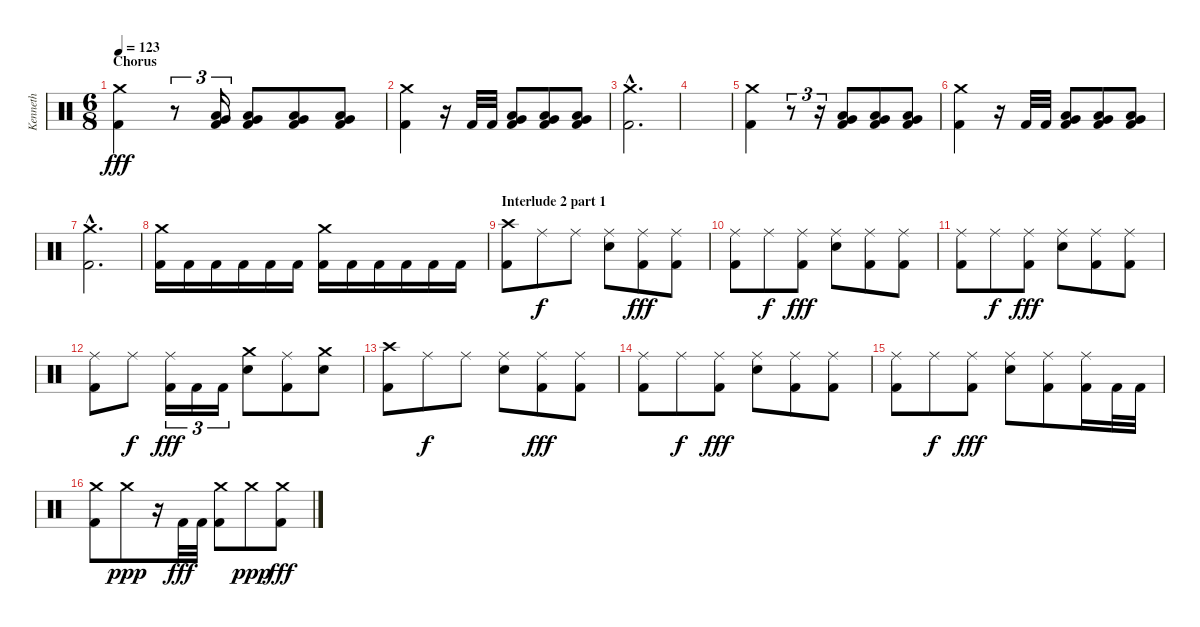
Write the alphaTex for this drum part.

\track ("Kenneth" "Kenneth") {instrument percussion}
\staff {score}
\articulation defaults
\ts (6 8)
\section ("" "Chorus")
\tempo 123
\clef neutral
\ks c
("Crash medium (hit)" "Kick (hit) 2").4{dy fff} r.8{tu (3 2)} ("Very Low Tom (hit)" "Low Tom (hit)" "Kick (hit) 2").16{tu (3 2)} ("Very Low Tom (hit)" "Low Tom (hit)" "Kick (hit) 2").8 ("Very Low Tom (hit)" "Low Tom (hit)" "Kick (hit) 2").8 ("Very Low Tom (hit)" "Low Tom (hit)" "Kick (hit) 2").8 |
("Crash medium (hit)" "Kick (hit) 2").4 r.16 "Kick (hit) 2".32 "Kick (hit) 2".32 ("Very Low Tom (hit)" "Low Tom (hit)" "Kick (hit) 2").8 ("Very Low Tom (hit)" "Low Tom (hit)" "Kick (hit) 2").8 ("Very Low Tom (hit)" "Low Tom (hit)" "Kick (hit) 2").8 |
("Crash medium (hit)"{hac} "Kick (hit) 2"{hac}).2{d} |
|
("Crash medium (hit)" "Kick (hit) 2").4 r.8{tu (3 2)} r.16{tu (3 2)} ("Very Low Tom (hit)" "Low Tom (hit)" "Kick (hit) 2").8 ("Very Low Tom (hit)" "Low Tom (hit)" "Kick (hit) 2").8 ("Very Low Tom (hit)" "Low Tom (hit)" "Kick (hit) 2").8 |
("Crash medium (hit)" "Kick (hit) 2").4 r.16 "Kick (hit) 2".32 "Kick (hit) 2".32 ("Very Low Tom (hit)" "Low Tom (hit)" "Kick (hit) 2").8 ("Very Low Tom (hit)" "Low Tom (hit)" "Kick (hit) 2").8 ("Very Low Tom (hit)" "Low Tom (hit)" "Kick (hit) 2").8 |
("Crash medium (hit)"{hac} "Kick (hit) 2"{hac}).2{d} |
("Crash medium (hit)" "Kick (hit) 2").16 "Kick (hit) 2".16 "Kick (hit) 2".16 "Kick (hit) 2".16 "Kick (hit) 2".16 "Kick (hit) 2".16 ("Crash medium (hit)" "Kick (hit) 2").16 "Kick (hit) 2".16 "Kick (hit) 2".16 "Kick (hit) 2".16 "Kick (hit) 2".16 "Kick (hit) 2".16 |
\section ("" "Interlude 2 part 1 ")
("Crash high (hit)" "Kick (hit) 2").8 "Ride (middle)".8{dy f} "Ride (middle)".8 ("Ride (middle)" "Snare (hit) 2").8 ("Ride (middle)" "Kick (hit) 2").8{dy fff} ("Ride (middle)" "Kick (hit) 2").8 |
("Ride (middle)" "Kick (hit) 2").8 "Ride (middle)".8{dy f} ("Ride (middle)" "Kick (hit) 2").8{dy fff} ("Ride (middle)" "Snare (hit) 2").8 ("Ride (middle)" "Kick (hit) 2").8 ("Ride (middle)" "Kick (hit) 2").8 |
("Ride (middle)" "Kick (hit) 2").8 "Ride (middle)".8{dy f} ("Ride (middle)" "Kick (hit) 2").8{dy fff} ("Ride (middle)" "Snare (hit) 2").8 ("Ride (middle)" "Kick (hit) 2").8 ("Ride (middle)" "Kick (hit) 2").8 |
("Ride (middle)" "Kick (hit) 2").8 "Ride (middle)".8{dy f} ("Ride (middle)" "Kick (hit) 2").16{tu (3 2) dy fff} "Kick (hit) 2".16{tu (3 2)} "Kick (hit) 2".16{tu (3 2)} ("Crash medium (hit)" "Snare (hit) 2").8 ("Ride (middle)" "Kick (hit) 2").8 ("Crash medium (hit)" "Snare (hit) 2").8 |
("Crash high (hit)" "Kick (hit) 2").8 "Ride (middle)".8{dy f} "Ride (middle)".8 ("Ride (middle)" "Snare (hit) 2").8 ("Ride (middle)" "Kick (hit) 2").8{dy fff} ("Ride (middle)" "Kick (hit) 2").8 |
("Ride (middle)" "Kick (hit) 2").8 "Ride (middle)".8{dy f} ("Ride (middle)" "Kick (hit) 2").8{dy fff} ("Ride (middle)" "Snare (hit) 2").8 ("Ride (middle)" "Kick (hit) 2").8 ("Ride (middle)" "Kick (hit) 2").8 |
("Ride (middle)" "Kick (hit) 2").8 "Ride (middle)".8{dy f} ("Ride (middle)" "Kick (hit) 2").8{dy fff} ("Ride (middle)" "Snare (hit) 2").8 ("Ride (middle)" "Kick (hit) 2").8 ("Ride (middle)" "Kick (hit) 2").16 "Kick (hit) 2".32 "Kick (hit) 2".32 |
("Crash medium (hit)" "Kick (hit) 2").8 "Crash medium (hit)".8{dy ppp} r.16 "Kick (hit) 2".32{dy fff} "Kick (hit) 2".32 ("Crash medium (hit)" "Kick (hit) 2").8 "Crash medium (hit)".8{dy ppp} ("Crash medium (hit)" "Kick (hit) 2").8{dy fff}
